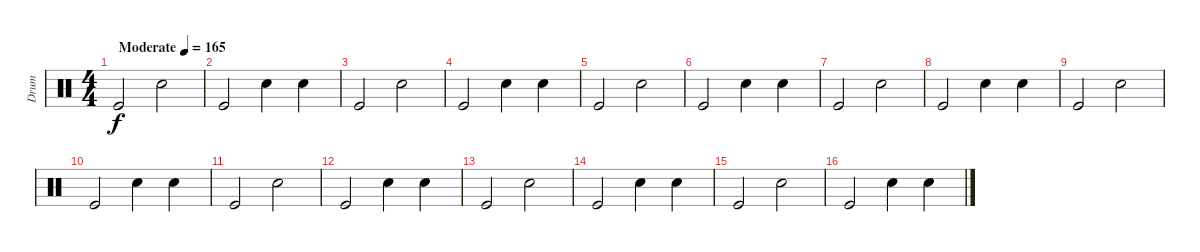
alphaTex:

\track ("Drum" "Drum") {instrument percussion}
\staff {score}
\articulation defaults
\ts (4 4)
\tempo (165 "Moderate")
\clef neutral
\ks c "Kick (hit)".2{dy f volume 0} "Electric Snare (hit)".2
|
"Kick (hit)".2 "Electric Snare (hit)".4 "Electric Snare (hit)".4 |
"Kick (hit)".2{volume 10} "Electric Snare (hit)".2 |
"Kick (hit)".2 "Electric Snare (hit)".4 "Electric Snare (hit)".4 |
"Kick (hit)".2 "Electric Snare (hit)".2 |
"Kick (hit)".2 "Electric Snare (hit)".4 "Electric Snare (hit)".4 |
"Kick (hit)".2 "Electric Snare (hit)".2 |
"Kick (hit)".2 "Electric Snare (hit)".4 "Electric Snare (hit)".4 |
"Kick (hit)".2 "Electric Snare (hit)".2 |
"Kick (hit)".2 "Electric Snare (hit)".4 "Electric Snare (hit)".4 |
"Kick (hit)".2 "Electric Snare (hit)".2 |
"Kick (hit)".2 "Electric Snare (hit)".4 "Electric Snare (hit)".4 |
"Kick (hit)".2 "Electric Snare (hit)".2 |
"Kick (hit)".2 "Electric Snare (hit)".4 "Electric Snare (hit)".4 |
"Kick (hit)".2 "Electric Snare (hit)".2 |
"Kick (hit)".2 "Electric Snare (hit)".4 "Electric Snare (hit)".4
